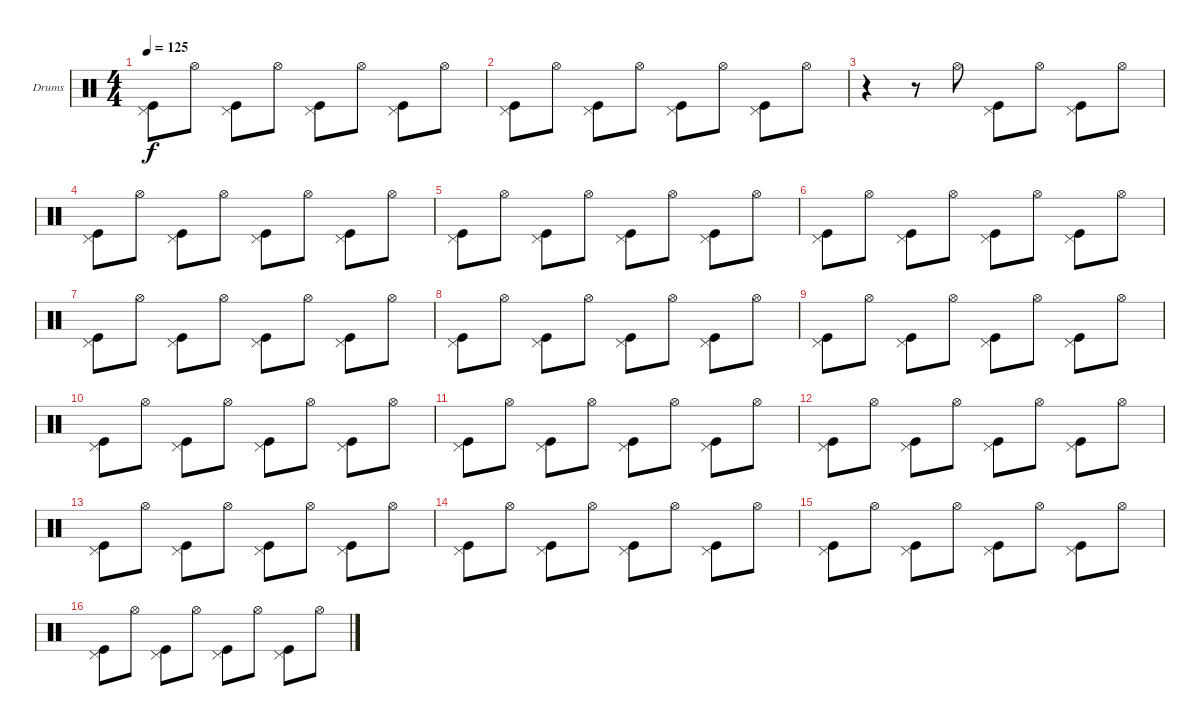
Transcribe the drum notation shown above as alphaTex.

\bracketExtendMode groupsimilarinstruments
\firstSystemTrackNameOrientation horizontal
\otherSystemsTrackNameOrientation horizontal
\track ("Drumkit" "Drums") {instrument percussion}
\staff {score}
\articulation defaults
\ts (4 4)
\tempo 125
\clef neutral
\ks c
("Pedal Hi-Hat (hit)" "Kick (hit)").8{dy f} "Hi-Hat (open)".8 ("Pedal Hi-Hat (hit)" "Kick (hit)").8 "Hi-Hat (open)".8 ("Pedal Hi-Hat (hit)" "Kick (hit)").8 "Hi-Hat (open)".8 ("Pedal Hi-Hat (hit)" "Kick (hit)").8 "Hi-Hat (open)".8 |
("Pedal Hi-Hat (hit)" "Kick (hit)").8 "Hi-Hat (open)".8 ("Pedal Hi-Hat (hit)" "Kick (hit)").8 "Hi-Hat (open)".8 ("Pedal Hi-Hat (hit)" "Kick (hit)").8 "Hi-Hat (open)".8 ("Pedal Hi-Hat (hit)" "Kick (hit)").8 "Hi-Hat (open)".8 |
r.4 r.8 "Hi-Hat (open)".8 ("Pedal Hi-Hat (hit)" "Kick (hit)").8 "Hi-Hat (open)".8 ("Pedal Hi-Hat (hit)" "Kick (hit)").8 "Hi-Hat (open)".8 |
("Pedal Hi-Hat (hit)" "Kick (hit)").8 "Hi-Hat (open)".8 ("Pedal Hi-Hat (hit)" "Kick (hit)").8 "Hi-Hat (open)".8 ("Pedal Hi-Hat (hit)" "Kick (hit)").8 "Hi-Hat (open)".8 ("Pedal Hi-Hat (hit)" "Kick (hit)").8 "Hi-Hat (open)".8 |
("Pedal Hi-Hat (hit)" "Kick (hit)").8 "Hi-Hat (open)".8 ("Pedal Hi-Hat (hit)" "Kick (hit)").8 "Hi-Hat (open)".8 ("Pedal Hi-Hat (hit)" "Kick (hit)").8 "Hi-Hat (open)".8 ("Pedal Hi-Hat (hit)" "Kick (hit)").8 "Hi-Hat (open)".8 |
("Pedal Hi-Hat (hit)" "Kick (hit)").8 "Hi-Hat (open)".8 ("Pedal Hi-Hat (hit)" "Kick (hit)").8 "Hi-Hat (open)".8 ("Pedal Hi-Hat (hit)" "Kick (hit)").8 "Hi-Hat (open)".8 ("Pedal Hi-Hat (hit)" "Kick (hit)").8 "Hi-Hat (open)".8 |
("Pedal Hi-Hat (hit)" "Kick (hit)").8 "Hi-Hat (open)".8 ("Pedal Hi-Hat (hit)" "Kick (hit)").8 "Hi-Hat (open)".8 ("Pedal Hi-Hat (hit)" "Kick (hit)").8 "Hi-Hat (open)".8 ("Pedal Hi-Hat (hit)" "Kick (hit)").8 "Hi-Hat (open)".8 |
("Pedal Hi-Hat (hit)" "Kick (hit)").8 "Hi-Hat (open)".8 ("Pedal Hi-Hat (hit)" "Kick (hit)").8 "Hi-Hat (open)".8 ("Pedal Hi-Hat (hit)" "Kick (hit)").8 "Hi-Hat (open)".8 ("Pedal Hi-Hat (hit)" "Kick (hit)").8 "Hi-Hat (open)".8 |
("Pedal Hi-Hat (hit)" "Kick (hit)").8 "Hi-Hat (open)".8 ("Pedal Hi-Hat (hit)" "Kick (hit)").8 "Hi-Hat (open)".8 ("Pedal Hi-Hat (hit)" "Kick (hit)").8 "Hi-Hat (open)".8 ("Pedal Hi-Hat (hit)" "Kick (hit)").8 "Hi-Hat (open)".8 |
("Pedal Hi-Hat (hit)" "Kick (hit)").8 "Hi-Hat (open)".8 ("Pedal Hi-Hat (hit)" "Kick (hit)").8 "Hi-Hat (open)".8 ("Pedal Hi-Hat (hit)" "Kick (hit)").8 "Hi-Hat (open)".8 ("Pedal Hi-Hat (hit)" "Kick (hit)").8 "Hi-Hat (open)".8 |
("Pedal Hi-Hat (hit)" "Kick (hit)").8 "Hi-Hat (open)".8 ("Pedal Hi-Hat (hit)" "Kick (hit)").8 "Hi-Hat (open)".8 ("Pedal Hi-Hat (hit)" "Kick (hit)").8 "Hi-Hat (open)".8 ("Pedal Hi-Hat (hit)" "Kick (hit)").8 "Hi-Hat (open)".8 |
("Pedal Hi-Hat (hit)" "Kick (hit)").8 "Hi-Hat (open)".8 ("Pedal Hi-Hat (hit)" "Kick (hit)").8 "Hi-Hat (open)".8 ("Pedal Hi-Hat (hit)" "Kick (hit)").8 "Hi-Hat (open)".8 ("Pedal Hi-Hat (hit)" "Kick (hit)").8 "Hi-Hat (open)".8 |
("Pedal Hi-Hat (hit)" "Kick (hit)").8 "Hi-Hat (open)".8 ("Pedal Hi-Hat (hit)" "Kick (hit)").8 "Hi-Hat (open)".8 ("Pedal Hi-Hat (hit)" "Kick (hit)").8 "Hi-Hat (open)".8 ("Pedal Hi-Hat (hit)" "Kick (hit)").8 "Hi-Hat (open)".8 |
("Pedal Hi-Hat (hit)" "Kick (hit)").8 "Hi-Hat (open)".8 ("Pedal Hi-Hat (hit)" "Kick (hit)").8 "Hi-Hat (open)".8 ("Pedal Hi-Hat (hit)" "Kick (hit)").8 "Hi-Hat (open)".8 ("Pedal Hi-Hat (hit)" "Kick (hit)").8 "Hi-Hat (open)".8 |
("Pedal Hi-Hat (hit)" "Kick (hit)").8 "Hi-Hat (open)".8 ("Pedal Hi-Hat (hit)" "Kick (hit)").8 "Hi-Hat (open)".8 ("Pedal Hi-Hat (hit)" "Kick (hit)").8 "Hi-Hat (open)".8 ("Pedal Hi-Hat (hit)" "Kick (hit)").8 "Hi-Hat (open)".8 |
("Pedal Hi-Hat (hit)" "Kick (hit)").8 "Hi-Hat (open)".8 ("Pedal Hi-Hat (hit)" "Kick (hit)").8 "Hi-Hat (open)".8 ("Pedal Hi-Hat (hit)" "Kick (hit)").8 "Hi-Hat (open)".8 ("Pedal Hi-Hat (hit)" "Kick (hit)").8 "Hi-Hat (open)".8
